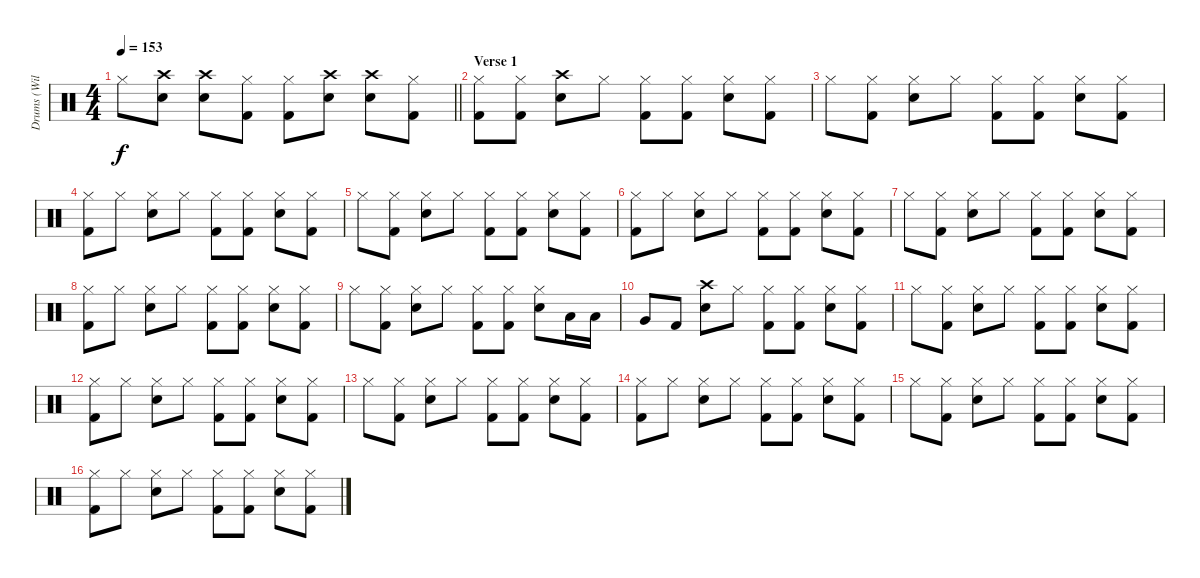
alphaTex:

\track ("Drums (Williams)" "Drums (Wil") {instrument percussion}
\staff {score}
\articulation defaults
\ts (4 4)
\tempo 153
\clef neutral
\barLineRight lightlight
\ks c "Hi-Hat (closed)".8{dy f}
("Crash high (hit)" "Electric Snare (hit)").8 ("Crash high (hit)" "Electric Snare (hit)").8 ("Hi-Hat (closed)" "Kick (hit) 2").8 ("Hi-Hat (closed)" "Kick (hit) 2").8 ("Crash high (hit)" "Electric Snare (hit)").8 ("Crash high (hit)" "Electric Snare (hit)").8 ("Hi-Hat (closed)" "Kick (hit) 2").8 |
\section ("" "Verse 1")
("Hi-Hat (closed)" "Kick (hit) 2").8 ("Hi-Hat (closed)" "Kick (hit) 2").8 ("Crash high (hit)" "Electric Snare (hit)").8 "Hi-Hat (closed)".8 ("Hi-Hat (closed)" "Kick (hit) 2").8 ("Hi-Hat (closed)" "Kick (hit) 2").8 ("Hi-Hat (closed)" "Electric Snare (hit)").8 ("Hi-Hat (closed)" "Kick (hit) 2").8 |
"Hi-Hat (closed)".8 ("Hi-Hat (closed)" "Kick (hit) 2").8 ("Hi-Hat (closed)" "Electric Snare (hit)").8 "Hi-Hat (closed)".8 ("Hi-Hat (closed)" "Kick (hit) 2").8 ("Hi-Hat (closed)" "Kick (hit) 2").8 ("Hi-Hat (closed)" "Electric Snare (hit)").8 ("Hi-Hat (closed)" "Kick (hit) 2").8 |
("Hi-Hat (closed)" "Kick (hit) 2").8 "Hi-Hat (closed)".8 ("Hi-Hat (closed)" "Electric Snare (hit)").8 "Hi-Hat (closed)".8 ("Hi-Hat (closed)" "Kick (hit) 2").8 ("Hi-Hat (closed)" "Kick (hit) 2").8 ("Hi-Hat (closed)" "Electric Snare (hit)").8 ("Hi-Hat (closed)" "Kick (hit) 2").8 |
"Hi-Hat (closed)".8 ("Hi-Hat (closed)" "Kick (hit) 2").8 ("Hi-Hat (closed)" "Electric Snare (hit)").8 "Hi-Hat (closed)".8 ("Hi-Hat (closed)" "Kick (hit) 2").8 ("Hi-Hat (closed)" "Kick (hit) 2").8 ("Hi-Hat (closed)" "Electric Snare (hit)").8 ("Hi-Hat (closed)" "Kick (hit) 2").8 |
("Hi-Hat (closed)" "Kick (hit) 2").8 "Hi-Hat (closed)".8 ("Hi-Hat (closed)" "Electric Snare (hit)").8 "Hi-Hat (closed)".8 ("Hi-Hat (closed)" "Kick (hit) 2").8 ("Hi-Hat (closed)" "Kick (hit) 2").8 ("Hi-Hat (closed)" "Electric Snare (hit)").8 ("Hi-Hat (closed)" "Kick (hit) 2").8 |
"Hi-Hat (closed)".8 ("Hi-Hat (closed)" "Kick (hit) 2").8 ("Hi-Hat (closed)" "Electric Snare (hit)").8 "Hi-Hat (closed)".8 ("Hi-Hat (closed)" "Kick (hit) 2").8 ("Hi-Hat (closed)" "Kick (hit) 2").8 ("Hi-Hat (closed)" "Electric Snare (hit)").8 ("Hi-Hat (closed)" "Kick (hit) 2").8 |
("Hi-Hat (closed)" "Kick (hit) 2").8 "Hi-Hat (closed)".8 ("Hi-Hat (closed)" "Electric Snare (hit)").8 "Hi-Hat (closed)".8 ("Hi-Hat (closed)" "Kick (hit) 2").8 ("Hi-Hat (closed)" "Kick (hit) 2").8 ("Hi-Hat (closed)" "Electric Snare (hit)").8 ("Hi-Hat (closed)" "Kick (hit) 2").8 |
"Hi-Hat (closed)".8 ("Hi-Hat (closed)" "Kick (hit) 2").8 ("Hi-Hat (closed)" "Electric Snare (hit)").8 "Hi-Hat (closed)".8 ("Hi-Hat (closed)" "Kick (hit) 2").8 ("Hi-Hat (closed)" "Kick (hit) 2").8 ("Hi-Hat (closed)" "Electric Snare (hit)").8 "Low Tom (hit)".16 "Low Tom (hit)".16 |
"Very Low Tom (hit)".8 "Kick (hit) 2".8 ("Crash high (hit)" "Electric Snare (hit)").8 "Hi-Hat (closed)".8 ("Hi-Hat (closed)" "Kick (hit) 2").8 ("Hi-Hat (closed)" "Kick (hit) 2").8 ("Hi-Hat (closed)" "Electric Snare (hit)").8 ("Hi-Hat (closed)" "Kick (hit) 2").8 |
"Hi-Hat (closed)".8 ("Hi-Hat (closed)" "Kick (hit) 2").8 ("Hi-Hat (closed)" "Electric Snare (hit)").8 "Hi-Hat (closed)".8 ("Hi-Hat (closed)" "Kick (hit) 2").8 ("Hi-Hat (closed)" "Kick (hit) 2").8 ("Hi-Hat (closed)" "Electric Snare (hit)").8 ("Hi-Hat (closed)" "Kick (hit) 2").8 |
("Hi-Hat (closed)" "Kick (hit) 2").8 "Hi-Hat (closed)".8 ("Hi-Hat (closed)" "Electric Snare (hit)").8 "Hi-Hat (closed)".8 ("Hi-Hat (closed)" "Kick (hit) 2").8 ("Hi-Hat (closed)" "Kick (hit) 2").8 ("Hi-Hat (closed)" "Electric Snare (hit)").8 ("Hi-Hat (closed)" "Kick (hit) 2").8 |
"Hi-Hat (closed)".8 ("Hi-Hat (closed)" "Kick (hit) 2").8 ("Hi-Hat (closed)" "Electric Snare (hit)").8 "Hi-Hat (closed)".8 ("Hi-Hat (closed)" "Kick (hit) 2").8 ("Hi-Hat (closed)" "Kick (hit) 2").8 ("Hi-Hat (closed)" "Electric Snare (hit)").8 ("Hi-Hat (closed)" "Kick (hit) 2").8 |
("Hi-Hat (closed)" "Kick (hit) 2").8 "Hi-Hat (closed)".8 ("Hi-Hat (closed)" "Electric Snare (hit)").8 "Hi-Hat (closed)".8 ("Hi-Hat (closed)" "Kick (hit) 2").8 ("Hi-Hat (closed)" "Kick (hit) 2").8 ("Hi-Hat (closed)" "Electric Snare (hit)").8 ("Hi-Hat (closed)" "Kick (hit) 2").8 |
"Hi-Hat (closed)".8 ("Hi-Hat (closed)" "Kick (hit) 2").8 ("Hi-Hat (closed)" "Electric Snare (hit)").8 "Hi-Hat (closed)".8 ("Hi-Hat (closed)" "Kick (hit) 2").8 ("Hi-Hat (closed)" "Kick (hit) 2").8 ("Hi-Hat (closed)" "Electric Snare (hit)").8 ("Hi-Hat (closed)" "Kick (hit) 2").8 |
("Hi-Hat (closed)" "Kick (hit) 2").8 "Hi-Hat (closed)".8 ("Hi-Hat (closed)" "Electric Snare (hit)").8 "Hi-Hat (closed)".8 ("Hi-Hat (closed)" "Kick (hit) 2").8 ("Hi-Hat (closed)" "Kick (hit) 2").8 ("Hi-Hat (closed)" "Electric Snare (hit)").8 ("Hi-Hat (closed)" "Kick (hit) 2").8
